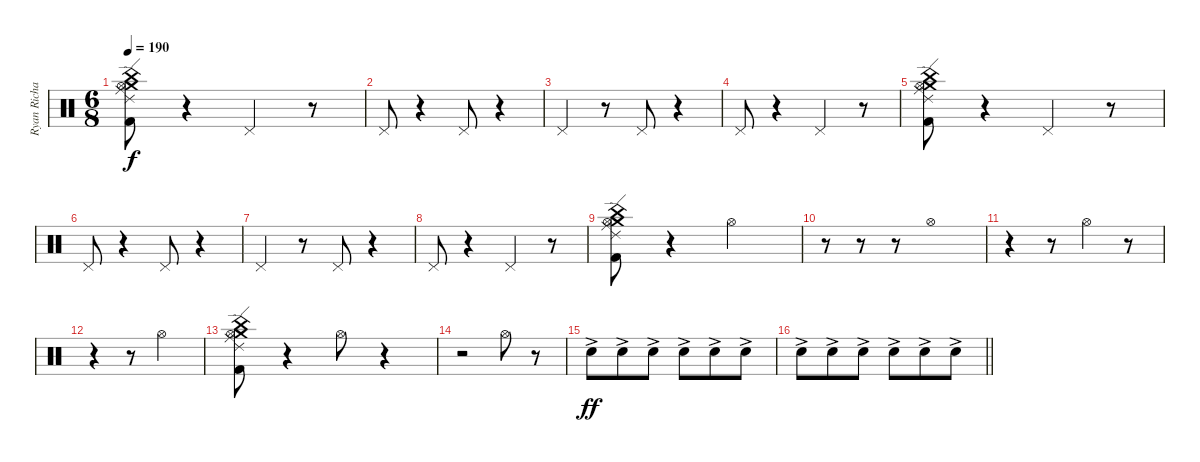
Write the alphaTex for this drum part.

\track ("Ryan Richards" "Ryan Richa") {instrument percussion bank 127}
\staff {score}
\articulation defaults
\ts (6 8)
\tempo 190
\clef neutral
\ks c
("Ride (edge) 2" "Crash medium (hit)" "China (hit)" "Ride (middle)" "Kick (hit) 2" "Hi-Hat (open)").8{dy f} r.4 "Pedal Hi-Hat (hit)".4 r.8 |
"Pedal Hi-Hat (hit)".8 r.4 "Pedal Hi-Hat (hit)".8 r.4 |
"Pedal Hi-Hat (hit)".4 r.8 "Pedal Hi-Hat (hit)".8 r.4 |
"Pedal Hi-Hat (hit)".8 r.4 "Pedal Hi-Hat (hit)".4 r.8 |
("Ride (edge) 2" "Crash medium (hit)" "China (hit)" "Ride (middle)" "Kick (hit) 2" "Hi-Hat (open)").8 r.4 "Pedal Hi-Hat (hit)".4 r.8 |
"Pedal Hi-Hat (hit)".8 r.4 "Pedal Hi-Hat (hit)".8 r.4 |
"Pedal Hi-Hat (hit)".4 r.8 "Pedal Hi-Hat (hit)".8 r.4 |
"Pedal Hi-Hat (hit)".8 r.4 "Pedal Hi-Hat (hit)".4 r.8 |
("Ride (edge) 2" "Crash medium (hit)" "China (hit)" "Ride (middle)" "Kick (hit) 2" "Hi-Hat (open)").8 r.4 "Hi-Hat (open)".2 |
r.8 r.8 r.8 "Hi-Hat (open)".1 |
r.4 r.8 "Hi-Hat (open)".4 r.8 |
r.4 r.8 "Hi-Hat (open)".2 |
("Ride (edge) 2" "Crash medium (hit)" "China (hit)" "Ride (middle)" "Kick (hit) 2" "Hi-Hat (open)").8 r.4 "Hi-Hat (open)".8 r.4 |
r.2 "Hi-Hat (open)".8 r.8 |
"Snare (hit) 2"{ac}.8{dy ff} "Snare (hit) 2"{ac}.8 "Snare (hit) 2"{ac}.8 "Snare (hit) 2"{ac}.8 "Snare (hit) 2"{ac}.8 "Snare (hit) 2"{ac}.8 |
\barLineRight lightlight "Snare (hit) 2"{ac}.8 "Snare (hit) 2"{ac}.8 "Snare (hit) 2"{ac}.8 "Snare (hit) 2"{ac}.8 "Snare (hit) 2"{ac}.8 "Snare (hit) 2"{ac}.8
